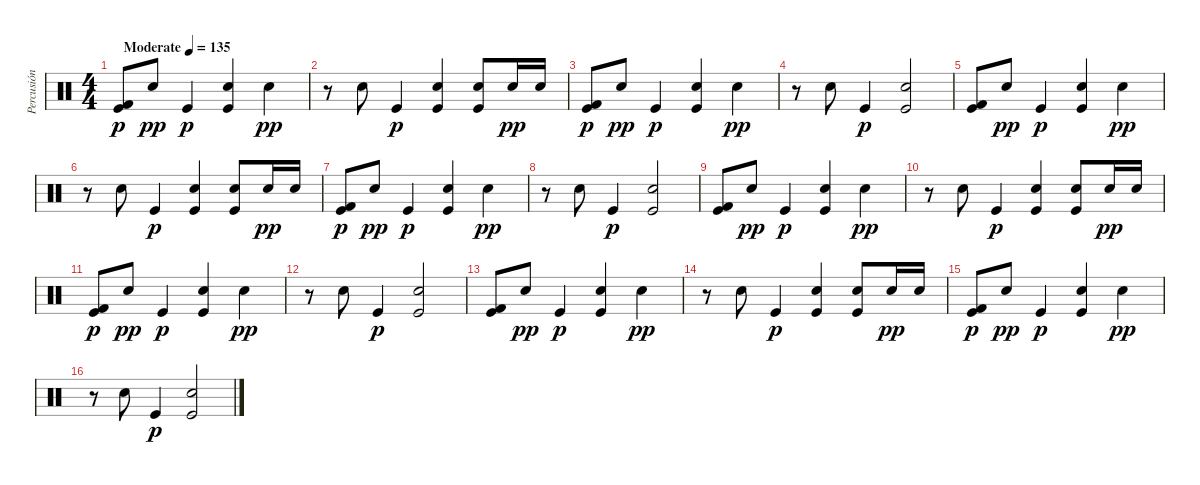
\track ("Percusión" "Percusión") {instrument percussion}
\staff {score}
\articulation defaults
\ts (4 4)
\tempo (135 "Moderate")
\clef neutral
\ks c
("Kick (hit)" "Kick (hit) 2").8{dy p} "Electric Snare (hit)".8{dy pp} "Kick (hit)".4{dy p} ("Electric Snare (hit)" "Kick (hit)").4 "Electric Snare (hit)".4{dy pp balance 16} |
r.8 "Electric Snare (hit)".8{balance 0} "Kick (hit)".4{dy p balance 8} ("Electric Snare (hit)" "Kick (hit)").4 ("Electric Snare (hit)" "Kick (hit)").8 "Electric Snare (hit)".16{dy pp} "Electric Snare (hit)".16 |
("Kick (hit)" "Kick (hit) 2").8{dy p} "Electric Snare (hit)".8{dy pp} "Kick (hit)".4{dy p} ("Electric Snare (hit)" "Kick (hit)").4 "Electric Snare (hit)".4{dy pp balance 16} |
r.8 "Electric Snare (hit)".8{balance 0} "Kick (hit)".4{dy p balance 8} ("Electric Snare (hit)" "Kick (hit)").2 |
("Kick (hit)" "Kick (hit) 2").8 "Electric Snare (hit)".8{dy pp} "Kick (hit)".4{dy p} ("Electric Snare (hit)" "Kick (hit)").4 "Electric Snare (hit)".4{dy pp balance 16} |
r.8 "Electric Snare (hit)".8{balance 0} "Kick (hit)".4{dy p balance 8} ("Electric Snare (hit)" "Kick (hit)").4 ("Electric Snare (hit)" "Kick (hit)").8 "Electric Snare (hit)".16{dy pp} "Electric Snare (hit)".16 |
("Kick (hit)" "Kick (hit) 2").8{dy p} "Electric Snare (hit)".8{dy pp} "Kick (hit)".4{dy p} ("Electric Snare (hit)" "Kick (hit)").4 "Electric Snare (hit)".4{dy pp balance 16} |
r.8 "Electric Snare (hit)".8{balance 0} "Kick (hit)".4{dy p balance 8} ("Electric Snare (hit)" "Kick (hit)").2 |
("Kick (hit)" "Kick (hit) 2").8 "Electric Snare (hit)".8{dy pp} "Kick (hit)".4{dy p} ("Electric Snare (hit)" "Kick (hit)").4 "Electric Snare (hit)".4{dy pp balance 16} |
r.8 "Electric Snare (hit)".8{balance 0} "Kick (hit)".4{dy p balance 8} ("Electric Snare (hit)" "Kick (hit)").4 ("Electric Snare (hit)" "Kick (hit)").8 "Electric Snare (hit)".16{dy pp} "Electric Snare (hit)".16 |
("Kick (hit)" "Kick (hit) 2").8{dy p} "Electric Snare (hit)".8{dy pp} "Kick (hit)".4{dy p} ("Electric Snare (hit)" "Kick (hit)").4 "Electric Snare (hit)".4{dy pp balance 16} |
r.8 "Electric Snare (hit)".8{balance 0} "Kick (hit)".4{dy p balance 8} ("Electric Snare (hit)" "Kick (hit)").2 |
("Kick (hit)" "Kick (hit) 2").8 "Electric Snare (hit)".8{dy pp} "Kick (hit)".4{dy p} ("Electric Snare (hit)" "Kick (hit)").4 "Electric Snare (hit)".4{dy pp balance 16} |
r.8 "Electric Snare (hit)".8{balance 0} "Kick (hit)".4{dy p balance 8} ("Electric Snare (hit)" "Kick (hit)").4 ("Electric Snare (hit)" "Kick (hit)").8 "Electric Snare (hit)".16{dy pp} "Electric Snare (hit)".16 |
("Kick (hit)" "Kick (hit) 2").8{dy p} "Electric Snare (hit)".8{dy pp} "Kick (hit)".4{dy p} ("Electric Snare (hit)" "Kick (hit)").4 "Electric Snare (hit)".4{dy pp balance 16} |
r.8 "Electric Snare (hit)".8{balance 0} "Kick (hit)".4{dy p balance 8} ("Electric Snare (hit)" "Kick (hit)").2
